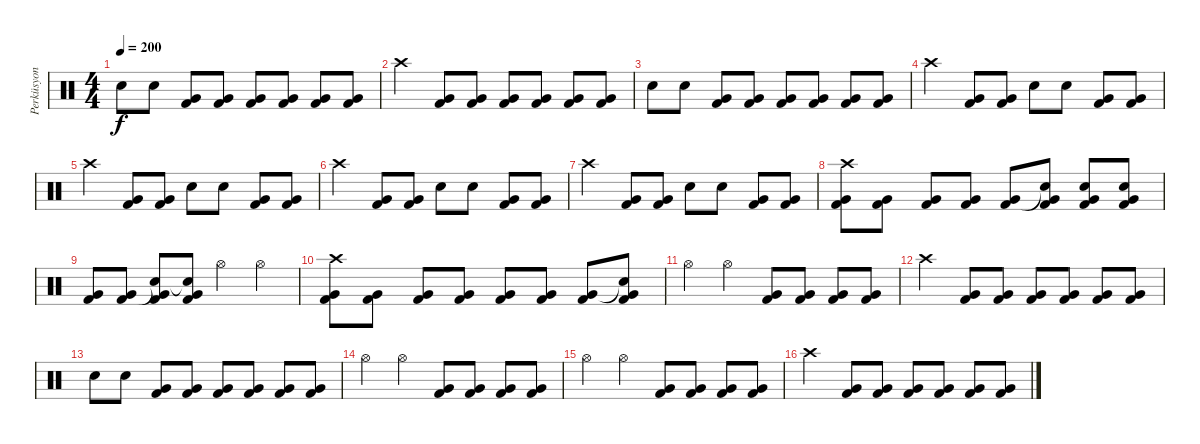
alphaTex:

\track ("Perküsyon" "Perküsyon") {instrument percussion}
\staff {score}
\articulation defaults
\ts (4 4)
\tempo 200
\clef neutral
\ks c "Snare (hit) 2".8{dy f} "Electric Snare (hit)".8
("Very Low Tom (hit)" "Kick (hit) 2").8 ("Very Low Tom (hit)" "Kick (hit) 2").8 ("Very Low Tom (hit)" "Kick (hit) 2").8 ("Very Low Tom (hit)" "Kick (hit) 2").8 ("Very Low Tom (hit)" "Kick (hit) 2").8 ("Very Low Tom (hit)" "Kick (hit) 2").8 |
"Crash high (hit)".4 ("Very Low Tom (hit)" "Kick (hit) 2").8 ("Very Low Tom (hit)" "Kick (hit) 2").8 ("Very Low Tom (hit)" "Kick (hit) 2").8 ("Very Low Tom (hit)" "Kick (hit) 2").8 ("Very Low Tom (hit)" "Kick (hit) 2").8 ("Very Low Tom (hit)" "Kick (hit) 2").8 |
"Snare (hit) 2".8 "Electric Snare (hit)".8 ("Very Low Tom (hit)" "Kick (hit) 2").8 ("Very Low Tom (hit)" "Kick (hit) 2").8 ("Very Low Tom (hit)" "Kick (hit) 2").8 ("Very Low Tom (hit)" "Kick (hit) 2").8 ("Very Low Tom (hit)" "Kick (hit) 2").8 ("Very Low Tom (hit)" "Kick (hit) 2").8 |
"Crash high (hit)".4 ("Very Low Tom (hit)" "Kick (hit) 2").8 ("Kick (hit) 2" "Very Low Tom (hit)").8 "Snare (hit) 2".8 "Electric Snare (hit)".8 ("Very Low Tom (hit)" "Kick (hit) 2").8 ("Kick (hit) 2" "Very Low Tom (hit)").8 |
"Crash high (hit)".4 ("Very Low Tom (hit)" "Kick (hit) 2").8 ("Kick (hit) 2" "Very Low Tom (hit)").8 "Snare (hit) 2".8 "Electric Snare (hit)".8 ("Very Low Tom (hit)" "Kick (hit) 2").8 ("Kick (hit) 2" "Very Low Tom (hit)").8 |
"Crash high (hit)".4 ("Very Low Tom (hit)" "Kick (hit) 2").8 ("Kick (hit) 2" "Very Low Tom (hit)").8 "Snare (hit) 2".8 "Electric Snare (hit)".8 ("Very Low Tom (hit)" "Kick (hit) 2").8 ("Kick (hit) 2" "Very Low Tom (hit)").8 |
"Crash high (hit)".4 ("Very Low Tom (hit)" "Kick (hit) 2").8 ("Kick (hit) 2" "Very Low Tom (hit)").8 "Snare (hit) 2".8 "Electric Snare (hit)".8 ("Very Low Tom (hit)" "Kick (hit) 2").8 ("Kick (hit) 2" "Very Low Tom (hit)").8 |
("Crash high (hit)" "Very Low Tom (hit)" "Kick (hit) 2").8 ("Kick (hit) 2" "Very Low Tom (hit)").8 ("Kick (hit) 2" "Very Low Tom (hit)").8 ("Kick (hit) 2" "Very Low Tom (hit)").8 ("Kick (hit) 2" "Very Low Tom (hit)").8 ("Snare (hit)"{t} "Kick (hit) 2" "Very Low Tom (hit)").8 ("Snare (hit) 2" "Kick (hit) 2" "Very Low Tom (hit)").8 ("Electric Snare (hit)" "Kick (hit) 2" "Very Low Tom (hit)").8 |
("Kick (hit) 2" "Very Low Tom (hit)").8 ("Kick (hit) 2" "Very Low Tom (hit)").8 ("Snare (hit)"{t} "Kick (hit) 2" "Very Low Tom (hit)").8 ("Snare (hit)"{t} "Kick (hit) 2" "Very Low Tom (hit)").8 "Hi-Hat (open)".4 "Hi-Hat (open)".4 |
("Crash high (hit)" "Very Low Tom (hit)" "Kick (hit) 2").8 ("Very Low Tom (hit)" "Kick (hit) 2").8 ("Very Low Tom (hit)" "Kick (hit) 2").8 ("Very Low Tom (hit)" "Kick (hit) 2").8 ("Very Low Tom (hit)" "Kick (hit) 2").8 ("Very Low Tom (hit)" "Kick (hit) 2").8 ("Very Low Tom (hit)" "Kick (hit) 2").8 ("Snare (hit)"{t} "Very Low Tom (hit)" "Kick (hit) 2").8 |
"Hi-Hat (open)".4 "Hi-Hat (open)".4 ("Very Low Tom (hit)" "Kick (hit) 2").8 ("Very Low Tom (hit)" "Kick (hit) 2").8 ("Very Low Tom (hit)" "Kick (hit) 2").8 ("Very Low Tom (hit)" "Kick (hit) 2").8 |
"Crash high (hit)".4 ("Kick (hit) 2" "Very Low Tom (hit)").8 ("Kick (hit) 2" "Very Low Tom (hit)").8 ("Kick (hit) 2" "Very Low Tom (hit)").8 ("Kick (hit) 2" "Very Low Tom (hit)").8 ("Kick (hit) 2" "Very Low Tom (hit)").8 ("Kick (hit) 2" "Very Low Tom (hit)").8 |
"Snare (hit) 2".8 "Electric Snare (hit)".8 ("Kick (hit) 2" "Very Low Tom (hit)").8 ("Kick (hit) 2" "Very Low Tom (hit)").8 ("Kick (hit) 2" "Very Low Tom (hit)").8 ("Kick (hit) 2" "Very Low Tom (hit)").8 ("Kick (hit) 2" "Very Low Tom (hit)").8 ("Kick (hit) 2" "Very Low Tom (hit)").8 |
"Hi-Hat (open)".4 "Hi-Hat (open)".4 ("Kick (hit) 2" "Very Low Tom (hit)").8 ("Kick (hit) 2" "Very Low Tom (hit)").8 ("Kick (hit) 2" "Very Low Tom (hit)").8 ("Kick (hit) 2" "Very Low Tom (hit)").8 |
"Hi-Hat (open)".4 "Hi-Hat (open)".4 ("Very Low Tom (hit)" "Kick (hit) 2").8 ("Very Low Tom (hit)" "Kick (hit) 2").8 ("Very Low Tom (hit)" "Kick (hit) 2").8 ("Very Low Tom (hit)" "Kick (hit) 2").8 |
"Crash high (hit)".4 ("Kick (hit) 2" "Very Low Tom (hit)").8 ("Kick (hit) 2" "Very Low Tom (hit)").8 ("Kick (hit) 2" "Very Low Tom (hit)").8 ("Kick (hit) 2" "Very Low Tom (hit)").8 ("Kick (hit) 2" "Very Low Tom (hit)").8 ("Kick (hit) 2" "Very Low Tom (hit)").8
